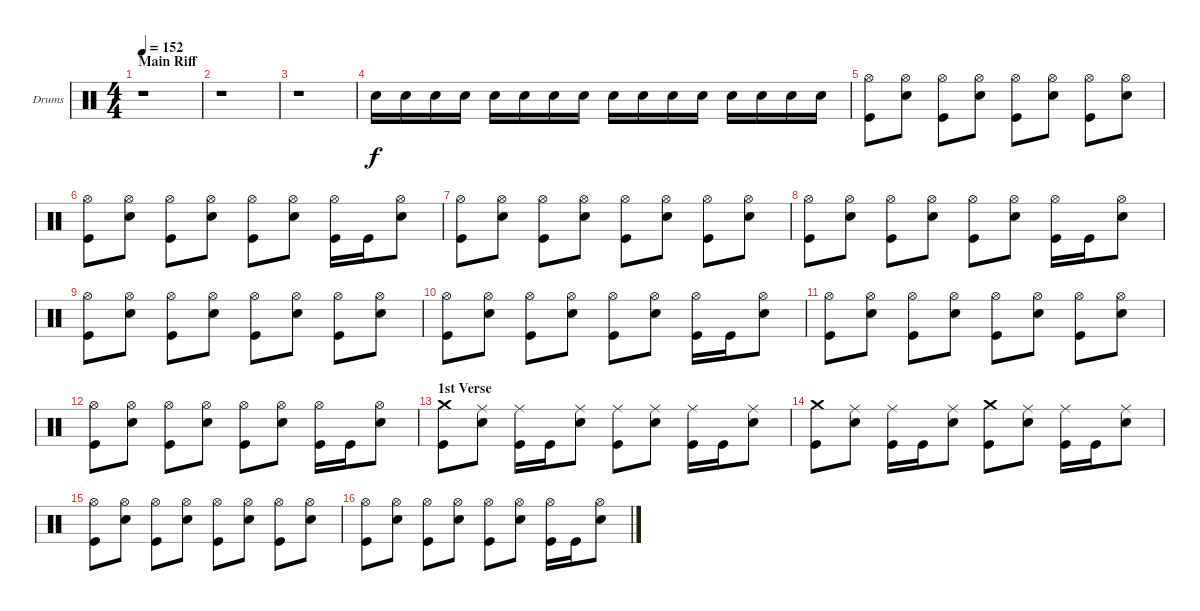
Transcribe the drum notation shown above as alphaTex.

\bracketExtendMode groupsimilarinstruments
\firstSystemTrackNameOrientation horizontal
\otherSystemsTrackNameOrientation horizontal
\track ("Drumkit" "Drums") {instrument percussion}
\staff {score}
\articulation defaults
\ts (4 4)
\section ("" "Main Riff")
\tempo 152
\clef neutral
\ks c
r.1{dy f} |
r.1 |
r.1 |
"Snare (hit) 2".16 "Snare (hit) 2".16 "Snare (hit) 2".16 "Snare (hit) 2".16 "Snare (hit) 2".16 "Snare (hit) 2".16 "Snare (hit) 2".16 "Snare (hit) 2".16 "Snare (hit) 2".16 "Snare (hit) 2".16 "Snare (hit) 2".16 "Snare (hit) 2".16 "Snare (hit) 2".16 "Snare (hit) 2".16 "Snare (hit) 2".16 "Snare (hit) 2".16 |
("Hi-Hat (open)" "Kick (hit)").8 ("Hi-Hat (open)" "Snare (hit) 2").8 ("Hi-Hat (open)" "Kick (hit)").8 ("Hi-Hat (open)" "Snare (hit) 2").8 ("Hi-Hat (open)" "Kick (hit)").8 ("Hi-Hat (open)" "Snare (hit) 2").8 ("Hi-Hat (open)" "Kick (hit)").8 ("Hi-Hat (open)" "Snare (hit) 2").8 |
("Hi-Hat (open)" "Kick (hit)").8 ("Hi-Hat (open)" "Snare (hit) 2").8 ("Hi-Hat (open)" "Kick (hit)").8 ("Hi-Hat (open)" "Snare (hit) 2").8 ("Hi-Hat (open)" "Kick (hit)").8 ("Hi-Hat (open)" "Snare (hit) 2").8 ("Hi-Hat (open)" "Kick (hit)").16 "Kick (hit)".16 ("Hi-Hat (open)" "Snare (hit) 2").8 |
("Hi-Hat (open)" "Kick (hit)").8 ("Hi-Hat (open)" "Snare (hit) 2").8 ("Hi-Hat (open)" "Kick (hit)").8 ("Hi-Hat (open)" "Snare (hit) 2").8 ("Hi-Hat (open)" "Kick (hit)").8 ("Hi-Hat (open)" "Snare (hit) 2").8 ("Hi-Hat (open)" "Kick (hit)").8 ("Hi-Hat (open)" "Snare (hit) 2").8 |
("Hi-Hat (open)" "Kick (hit)").8 ("Hi-Hat (open)" "Snare (hit) 2").8 ("Hi-Hat (open)" "Kick (hit)").8 ("Hi-Hat (open)" "Snare (hit) 2").8 ("Hi-Hat (open)" "Kick (hit)").8 ("Hi-Hat (open)" "Snare (hit) 2").8 ("Hi-Hat (open)" "Kick (hit)").16 "Kick (hit)".16 ("Hi-Hat (open)" "Snare (hit) 2").8 |
("Hi-Hat (open)" "Kick (hit)").8 ("Hi-Hat (open)" "Snare (hit) 2").8 ("Hi-Hat (open)" "Kick (hit)").8 ("Hi-Hat (open)" "Snare (hit) 2").8 ("Hi-Hat (open)" "Kick (hit)").8 ("Hi-Hat (open)" "Snare (hit) 2").8 ("Hi-Hat (open)" "Kick (hit)").8 ("Hi-Hat (open)" "Snare (hit) 2").8 |
("Hi-Hat (open)" "Kick (hit)").8 ("Hi-Hat (open)" "Snare (hit) 2").8 ("Hi-Hat (open)" "Kick (hit)").8 ("Hi-Hat (open)" "Snare (hit) 2").8 ("Hi-Hat (open)" "Kick (hit)").8 ("Hi-Hat (open)" "Snare (hit) 2").8 ("Hi-Hat (open)" "Kick (hit)").16 "Kick (hit)".16 ("Hi-Hat (open)" "Snare (hit) 2").8 |
("Hi-Hat (open)" "Kick (hit)").8 ("Hi-Hat (open)" "Snare (hit) 2").8 ("Hi-Hat (open)" "Kick (hit)").8 ("Hi-Hat (open)" "Snare (hit) 2").8 ("Hi-Hat (open)" "Kick (hit)").8 ("Hi-Hat (open)" "Snare (hit) 2").8 ("Hi-Hat (open)" "Kick (hit)").8 ("Hi-Hat (open)" "Snare (hit) 2").8 |
("Hi-Hat (open)" "Kick (hit)").8 ("Hi-Hat (open)" "Snare (hit) 2").8 ("Hi-Hat (open)" "Kick (hit)").8 ("Hi-Hat (open)" "Snare (hit) 2").8 ("Hi-Hat (open)" "Kick (hit)").8 ("Hi-Hat (open)" "Snare (hit) 2").8 ("Hi-Hat (open)" "Kick (hit)").16 "Kick (hit)".16 ("Hi-Hat (open)" "Snare (hit) 2").8 |
\section ("" "1st Verse")
("Crash medium (hit)" "Kick (hit)").8 ("Ride (middle)" "Snare (hit) 2").8 ("Ride (middle)" "Kick (hit)").16 "Kick (hit)".16 ("Ride (middle)" "Snare (hit) 2").8 ("Ride (middle)" "Kick (hit)").8 ("Ride (middle)" "Snare (hit) 2").8 ("Ride (middle)" "Kick (hit)").16 "Kick (hit)".16 ("Ride (middle)" "Snare (hit) 2").8 |
("Crash medium (hit)" "Kick (hit)").8 ("Ride (middle)" "Snare (hit) 2").8 ("Ride (middle)" "Kick (hit)").16 "Kick (hit)".16 ("Ride (middle)" "Snare (hit) 2").8 ("Crash medium (hit)" "Kick (hit)").8 ("Ride (middle)" "Snare (hit) 2").8 ("Ride (middle)" "Kick (hit)").16 "Kick (hit)".16 ("Ride (middle)" "Snare (hit) 2").8 |
("Hi-Hat (open)" "Kick (hit)").8 ("Hi-Hat (open)" "Snare (hit) 2").8 ("Hi-Hat (open)" "Kick (hit)").8 ("Hi-Hat (open)" "Snare (hit) 2").8 ("Hi-Hat (open)" "Kick (hit)").8 ("Hi-Hat (open)" "Snare (hit) 2").8 ("Hi-Hat (open)" "Kick (hit)").8 ("Hi-Hat (open)" "Snare (hit) 2").8 |
("Hi-Hat (open)" "Kick (hit)").8 ("Hi-Hat (open)" "Snare (hit) 2").8 ("Hi-Hat (open)" "Kick (hit)").8 ("Hi-Hat (open)" "Snare (hit) 2").8 ("Hi-Hat (open)" "Kick (hit)").8 ("Hi-Hat (open)" "Snare (hit) 2").8 ("Hi-Hat (open)" "Kick (hit)").16 "Kick (hit)".16 ("Hi-Hat (open)" "Snare (hit) 2").8
